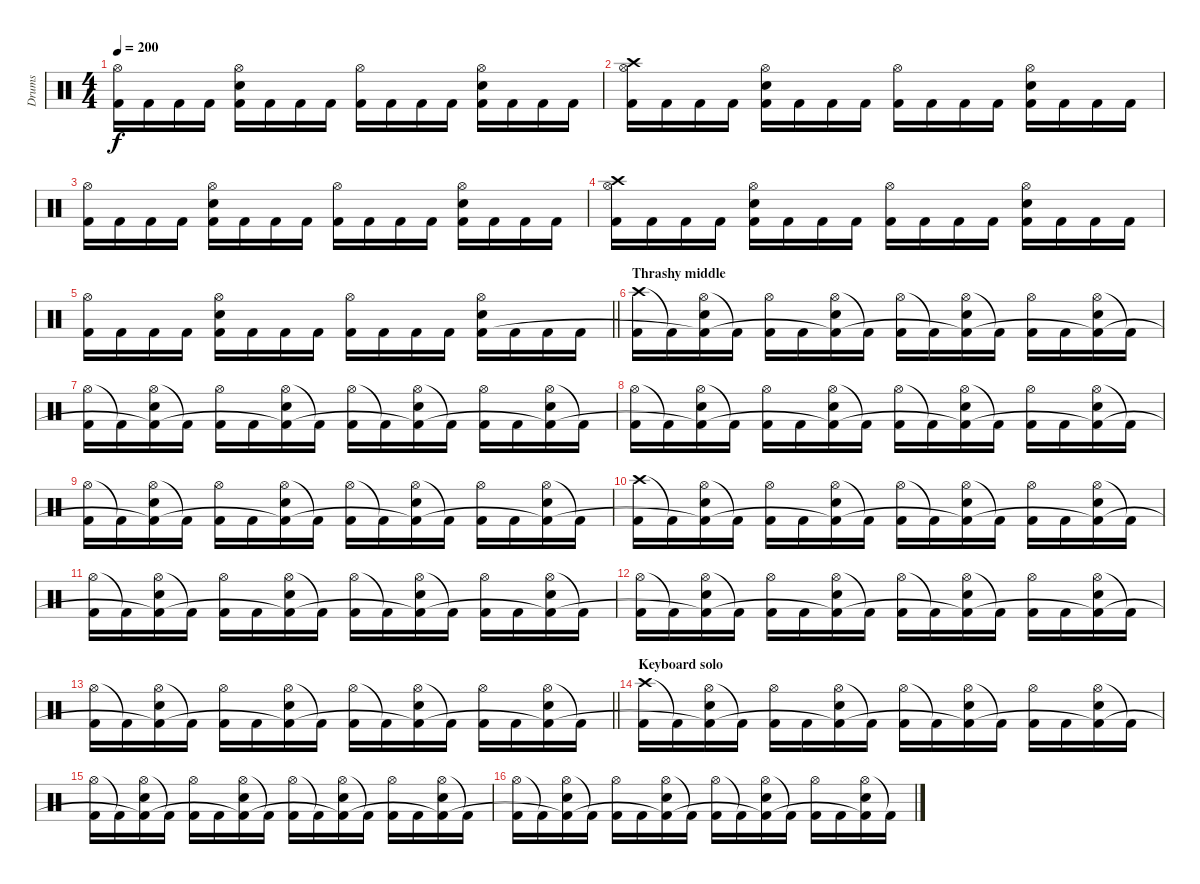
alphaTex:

\track ("Drums" "Drums") {instrument percussion}
\staff {score}
\articulation defaults
\ts (4 4)
\tempo 200
\clef neutral
\ks c
("Hi-Hat (open)" "Kick (hit) 2").16{dy f} "Kick (hit) 2".16 "Kick (hit) 2".16 "Kick (hit) 2".16 ("Hi-Hat (open)" "Snare (hit) 2" "Kick (hit) 2").16 "Kick (hit) 2".16 "Kick (hit) 2".16 "Kick (hit) 2".16 ("Hi-Hat (open)" "Kick (hit) 2").16 "Kick (hit) 2".16 "Kick (hit) 2".16 "Kick (hit) 2".16 ("Hi-Hat (open)" "Snare (hit) 2" "Kick (hit) 2").16 "Kick (hit) 2".16 "Kick (hit) 2".16 "Kick (hit) 2".16 |
("Crash high (hit)" "Hi-Hat (open)" "Kick (hit) 2").16 "Kick (hit) 2".16 "Kick (hit) 2".16 "Kick (hit) 2".16 ("Hi-Hat (open)" "Snare (hit) 2" "Kick (hit) 2").16 "Kick (hit) 2".16 "Kick (hit) 2".16 "Kick (hit) 2".16 ("Hi-Hat (open)" "Kick (hit) 2").16 "Kick (hit) 2".16 "Kick (hit) 2".16 "Kick (hit) 2".16 ("Hi-Hat (open)" "Snare (hit) 2" "Kick (hit) 2").16 "Kick (hit) 2".16 "Kick (hit) 2".16 "Kick (hit) 2".16 |
("Hi-Hat (open)" "Kick (hit) 2").16 "Kick (hit) 2".16 "Kick (hit) 2".16 "Kick (hit) 2".16 ("Hi-Hat (open)" "Snare (hit) 2" "Kick (hit) 2").16 "Kick (hit) 2".16 "Kick (hit) 2".16 "Kick (hit) 2".16 ("Hi-Hat (open)" "Kick (hit) 2").16 "Kick (hit) 2".16 "Kick (hit) 2".16 "Kick (hit) 2".16 ("Hi-Hat (open)" "Snare (hit) 2" "Kick (hit) 2").16 "Kick (hit) 2".16 "Kick (hit) 2".16 "Kick (hit) 2".16 |
("Crash high (hit)" "Hi-Hat (open)" "Kick (hit) 2").16 "Kick (hit) 2".16 "Kick (hit) 2".16 "Kick (hit) 2".16 ("Hi-Hat (open)" "Snare (hit) 2" "Kick (hit) 2").16 "Kick (hit) 2".16 "Kick (hit) 2".16 "Kick (hit) 2".16 ("Hi-Hat (open)" "Kick (hit) 2").16 "Kick (hit) 2".16 "Kick (hit) 2".16 "Kick (hit) 2".16 ("Hi-Hat (open)" "Snare (hit) 2" "Kick (hit) 2").16 "Kick (hit) 2".16 "Kick (hit) 2".16 "Kick (hit) 2".16 |
\barLineRight lightlight
("Hi-Hat (open)" "Kick (hit) 2").16 "Kick (hit) 2".16 "Kick (hit) 2".16 "Kick (hit) 2".16 ("Hi-Hat (open)" "Snare (hit) 2" "Kick (hit) 2").16 "Kick (hit) 2".16 "Kick (hit) 2".16 "Kick (hit) 2".16 ("Hi-Hat (open)" "Kick (hit) 2").16 "Kick (hit) 2".16 "Kick (hit) 2".16 "Kick (hit) 2".16 ("Hi-Hat (open)" "Snare (hit) 2" "Kick (hit) 2").16 "Kick (hit) 2".16 "Kick (hit) 2".16 "Kick (hit) 2".16 |
\section ("" "Thrashy middle")
("Crash high (hit)" "Kick (hit) 2").16 "Kick (hit) 2"{t}.16 ("Hi-Hat (open)" "Snare (hit) 2" "Kick (hit) 2"{t}).16 "Kick (hit) 2"{t}.16 ("Hi-Hat (open)" "Kick (hit) 2").16 "Kick (hit) 2".16 ("Hi-Hat (open)" "Snare (hit) 2" "Kick (hit) 2"{t}).16 "Kick (hit) 2"{t}.16 ("Hi-Hat (open)" "Kick (hit) 2").16 "Kick (hit) 2"{t}.16 ("Hi-Hat (open)" "Snare (hit) 2" "Kick (hit) 2"{t}).16 "Kick (hit) 2"{t}.16 ("Hi-Hat (open)" "Kick (hit) 2").16 "Kick (hit) 2".16 ("Hi-Hat (open)" "Snare (hit) 2" "Kick (hit) 2"{t}).16 "Kick (hit) 2"{t}.16 |
("Hi-Hat (open)" "Kick (hit) 2").16 "Kick (hit) 2"{t}.16 ("Hi-Hat (open)" "Snare (hit) 2" "Kick (hit) 2"{t}).16 "Kick (hit) 2"{t}.16 ("Hi-Hat (open)" "Kick (hit) 2").16 "Kick (hit) 2".16 ("Hi-Hat (open)" "Snare (hit) 2" "Kick (hit) 2"{t}).16 "Kick (hit) 2"{t}.16 ("Hi-Hat (open)" "Kick (hit) 2").16 "Kick (hit) 2"{t}.16 ("Hi-Hat (open)" "Snare (hit) 2" "Kick (hit) 2"{t}).16 "Kick (hit) 2"{t}.16 ("Hi-Hat (open)" "Kick (hit) 2").16 "Kick (hit) 2".16 ("Hi-Hat (open)" "Snare (hit) 2" "Kick (hit) 2"{t}).16 "Kick (hit) 2"{t}.16 |
("Hi-Hat (open)" "Kick (hit) 2").16 "Kick (hit) 2"{t}.16 ("Hi-Hat (open)" "Snare (hit) 2" "Kick (hit) 2"{t}).16 "Kick (hit) 2"{t}.16 ("Hi-Hat (open)" "Kick (hit) 2").16 "Kick (hit) 2".16 ("Hi-Hat (open)" "Snare (hit) 2" "Kick (hit) 2"{t}).16 "Kick (hit) 2"{t}.16 ("Hi-Hat (open)" "Kick (hit) 2").16 "Kick (hit) 2"{t}.16 ("Hi-Hat (open)" "Snare (hit) 2" "Kick (hit) 2"{t}).16 "Kick (hit) 2"{t}.16 ("Hi-Hat (open)" "Kick (hit) 2").16 "Kick (hit) 2".16 ("Hi-Hat (open)" "Snare (hit) 2" "Kick (hit) 2"{t}).16 "Kick (hit) 2"{t}.16 |
("Hi-Hat (open)" "Kick (hit) 2").16 "Kick (hit) 2"{t}.16 ("Hi-Hat (open)" "Snare (hit) 2" "Kick (hit) 2"{t}).16 "Kick (hit) 2"{t}.16 ("Hi-Hat (open)" "Kick (hit) 2").16 "Kick (hit) 2".16 ("Hi-Hat (open)" "Snare (hit) 2" "Kick (hit) 2"{t}).16 "Kick (hit) 2"{t}.16 ("Hi-Hat (open)" "Kick (hit) 2").16 "Kick (hit) 2"{t}.16 ("Hi-Hat (open)" "Snare (hit) 2" "Kick (hit) 2"{t}).16 "Kick (hit) 2"{t}.16 ("Hi-Hat (open)" "Kick (hit) 2").16 "Kick (hit) 2".16 ("Hi-Hat (open)" "Snare (hit) 2" "Kick (hit) 2"{t}).16 "Kick (hit) 2"{t}.16 |
("Crash high (hit)" "Kick (hit) 2").16 "Kick (hit) 2"{t}.16 ("Hi-Hat (open)" "Snare (hit) 2" "Kick (hit) 2"{t}).16 "Kick (hit) 2"{t}.16 ("Hi-Hat (open)" "Kick (hit) 2").16 "Kick (hit) 2".16 ("Hi-Hat (open)" "Snare (hit) 2" "Kick (hit) 2"{t}).16 "Kick (hit) 2"{t}.16 ("Hi-Hat (open)" "Kick (hit) 2").16 "Kick (hit) 2"{t}.16 ("Hi-Hat (open)" "Snare (hit) 2" "Kick (hit) 2"{t}).16 "Kick (hit) 2"{t}.16 ("Hi-Hat (open)" "Kick (hit) 2").16 "Kick (hit) 2".16 ("Hi-Hat (open)" "Snare (hit) 2" "Kick (hit) 2"{t}).16 "Kick (hit) 2"{t}.16 |
("Hi-Hat (open)" "Kick (hit) 2").16 "Kick (hit) 2"{t}.16 ("Hi-Hat (open)" "Snare (hit) 2" "Kick (hit) 2"{t}).16 "Kick (hit) 2"{t}.16 ("Hi-Hat (open)" "Kick (hit) 2").16 "Kick (hit) 2".16 ("Hi-Hat (open)" "Snare (hit) 2" "Kick (hit) 2"{t}).16 "Kick (hit) 2"{t}.16 ("Hi-Hat (open)" "Kick (hit) 2").16 "Kick (hit) 2"{t}.16 ("Hi-Hat (open)" "Snare (hit) 2" "Kick (hit) 2"{t}).16 "Kick (hit) 2"{t}.16 ("Hi-Hat (open)" "Kick (hit) 2").16 "Kick (hit) 2".16 ("Hi-Hat (open)" "Snare (hit) 2" "Kick (hit) 2"{t}).16 "Kick (hit) 2"{t}.16 |
("Hi-Hat (open)" "Kick (hit) 2").16 "Kick (hit) 2"{t}.16 ("Hi-Hat (open)" "Snare (hit) 2" "Kick (hit) 2"{t}).16 "Kick (hit) 2"{t}.16 ("Hi-Hat (open)" "Kick (hit) 2").16 "Kick (hit) 2".16 ("Hi-Hat (open)" "Snare (hit) 2" "Kick (hit) 2"{t}).16 "Kick (hit) 2"{t}.16 ("Hi-Hat (open)" "Kick (hit) 2").16 "Kick (hit) 2"{t}.16 ("Hi-Hat (open)" "Snare (hit) 2" "Kick (hit) 2"{t}).16 "Kick (hit) 2"{t}.16 ("Hi-Hat (open)" "Kick (hit) 2").16 "Kick (hit) 2".16 ("Hi-Hat (open)" "Snare (hit) 2" "Kick (hit) 2"{t}).16 "Kick (hit) 2"{t}.16 |
\barLineRight lightlight
("Hi-Hat (open)" "Kick (hit) 2").16 "Kick (hit) 2"{t}.16 ("Hi-Hat (open)" "Snare (hit) 2" "Kick (hit) 2"{t}).16 "Kick (hit) 2"{t}.16 ("Hi-Hat (open)" "Kick (hit) 2").16 "Kick (hit) 2".16 ("Hi-Hat (open)" "Snare (hit) 2" "Kick (hit) 2"{t}).16 "Kick (hit) 2"{t}.16 ("Hi-Hat (open)" "Kick (hit) 2").16 "Kick (hit) 2"{t}.16 ("Hi-Hat (open)" "Snare (hit) 2" "Kick (hit) 2"{t}).16 "Kick (hit) 2"{t}.16 ("Hi-Hat (open)" "Kick (hit) 2").16 "Kick (hit) 2".16 ("Hi-Hat (open)" "Snare (hit) 2" "Kick (hit) 2"{t}).16 "Kick (hit) 2"{t}.16 |
\section ("" "Keyboard solo")
("Crash high (hit)" "Kick (hit) 2").16 "Kick (hit) 2"{t}.16 ("Hi-Hat (open)" "Snare (hit) 2" "Kick (hit) 2"{t}).16 "Kick (hit) 2"{t}.16 ("Hi-Hat (open)" "Kick (hit) 2").16 "Kick (hit) 2".16 ("Hi-Hat (open)" "Snare (hit) 2" "Kick (hit) 2"{t}).16 "Kick (hit) 2"{t}.16 ("Hi-Hat (open)" "Kick (hit) 2").16 "Kick (hit) 2"{t}.16 ("Hi-Hat (open)" "Snare (hit) 2" "Kick (hit) 2"{t}).16 "Kick (hit) 2"{t}.16 ("Hi-Hat (open)" "Kick (hit) 2").16 "Kick (hit) 2".16 ("Hi-Hat (open)" "Snare (hit) 2" "Kick (hit) 2"{t}).16 "Kick (hit) 2"{t}.16 |
("Hi-Hat (open)" "Kick (hit) 2").16 "Kick (hit) 2"{t}.16 ("Hi-Hat (open)" "Snare (hit) 2" "Kick (hit) 2"{t}).16 "Kick (hit) 2"{t}.16 ("Hi-Hat (open)" "Kick (hit) 2").16 "Kick (hit) 2".16 ("Hi-Hat (open)" "Snare (hit) 2" "Kick (hit) 2"{t}).16 "Kick (hit) 2"{t}.16 ("Hi-Hat (open)" "Kick (hit) 2").16 "Kick (hit) 2"{t}.16 ("Hi-Hat (open)" "Snare (hit) 2" "Kick (hit) 2"{t}).16 "Kick (hit) 2"{t}.16 ("Hi-Hat (open)" "Kick (hit) 2").16 "Kick (hit) 2".16 ("Hi-Hat (open)" "Snare (hit) 2" "Kick (hit) 2"{t}).16 "Kick (hit) 2"{t}.16 |
("Hi-Hat (open)" "Kick (hit) 2").16 "Kick (hit) 2"{t}.16 ("Hi-Hat (open)" "Snare (hit) 2" "Kick (hit) 2"{t}).16 "Kick (hit) 2"{t}.16 ("Hi-Hat (open)" "Kick (hit) 2").16 "Kick (hit) 2".16 ("Hi-Hat (open)" "Snare (hit) 2" "Kick (hit) 2"{t}).16 "Kick (hit) 2"{t}.16 ("Hi-Hat (open)" "Kick (hit) 2").16 "Kick (hit) 2"{t}.16 ("Hi-Hat (open)" "Snare (hit) 2" "Kick (hit) 2"{t}).16 "Kick (hit) 2"{t}.16 ("Hi-Hat (open)" "Kick (hit) 2").16 "Kick (hit) 2".16 ("Hi-Hat (open)" "Snare (hit) 2" "Kick (hit) 2"{t}).16 "Kick (hit) 2"{t}.16
